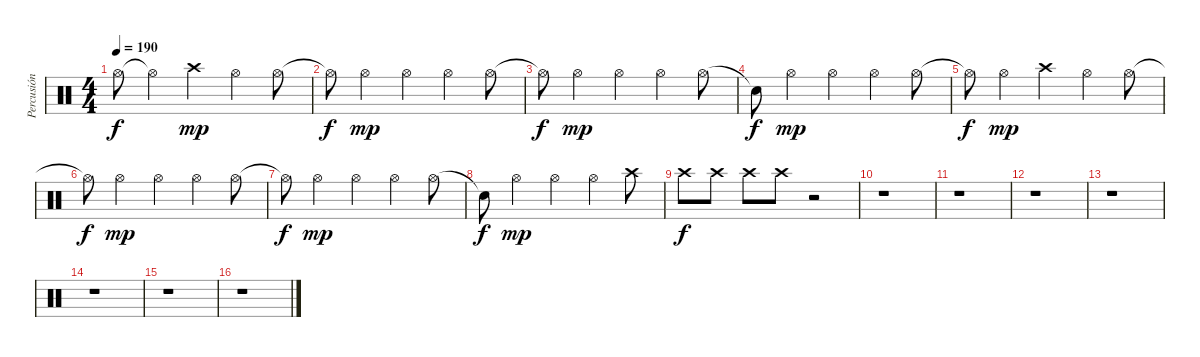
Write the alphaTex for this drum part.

\track ("Percusión" "Percusión") {instrument percussion}
\staff {score}
\articulation defaults
\ts (4 4)
\tempo 190
\clef neutral
\ks c "Hi-Hat (open)"{t}.8{dy f} "Hi-Hat (open)"{t}.4 "Crash high (hit)".4{dy mp} "Hi-Hat (open)".4 "Hi-Hat (open)".8
|
"Hi-Hat (open)"{t}.8{dy f} "Hi-Hat (open)".4{dy mp} "Hi-Hat (open)".4 "Hi-Hat (open)".4 "Hi-Hat (open)".8 |
"Hi-Hat (open)"{t}.8{dy f} "Hi-Hat (open)".4{dy mp} "Hi-Hat (open)".4 "Hi-Hat (open)".4 "Hi-Hat (open)".8 |
"Snare (hit)"{t}.8{dy f} "Hi-Hat (open)".4{dy mp} "Hi-Hat (open)".4 "Hi-Hat (open)".4 "Hi-Hat (open)".8 |
"Hi-Hat (open)"{t}.8{dy f} "Hi-Hat (open)".4{dy mp} "Crash high (hit)".4 "Hi-Hat (open)".4 "Hi-Hat (open)".8 |
"Hi-Hat (open)"{t}.8{dy f} "Hi-Hat (open)".4{dy mp} "Hi-Hat (open)".4 "Hi-Hat (open)".4 "Hi-Hat (open)".8 |
"Hi-Hat (open)"{t}.8{dy f} "Hi-Hat (open)".4{dy mp} "Hi-Hat (open)".4 "Hi-Hat (open)".4 "Hi-Hat (open)".8 |
"Snare (hit)"{t}.8{dy f} "Hi-Hat (open)".4{dy mp} "Hi-Hat (open)".4 "Hi-Hat (open)".4 "Crash high (hit)".8 |
"Crash high (hit)".8{dy f} "Crash high (hit)".8 "Crash high (hit)".8 "Crash high (hit)".8 r.2 |
r.1 |
r.1 |
r.1 |
r.1 |
r.1 |
r.1 |
r.1
